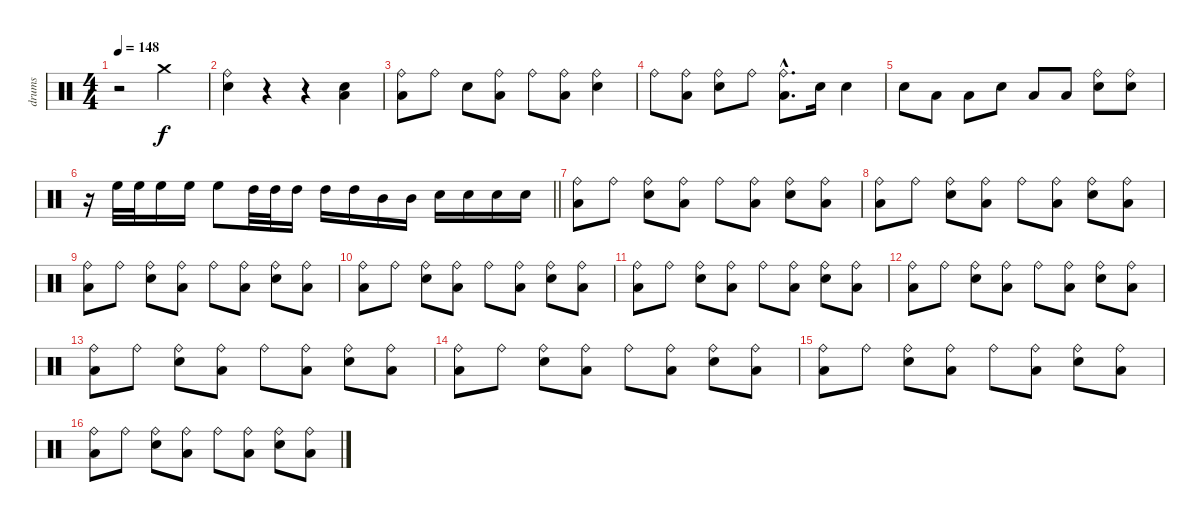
\track ("drums" "drums") {instrument percussion}
\staff {score}
\articulation defaults
\ts (4 4)
\tempo 148
\clef neutral
\ks c
r.2{dy f} "Crash medium (hit)".2 |
("Ride (bell)" "Electric Snare (hit)").4 r.4 r.4 ("Low Tom (hit)" "Snare (hit) 2").4 |
("Ride (bell)" "Low Floor Tom (hit)").8 "Ride (bell)".8 "Electric Snare (hit)".8 ("Ride (bell)" "Low Floor Tom (hit)").8 "Ride (bell)".8 ("Ride (bell)" "Low Floor Tom (hit)").8 ("Ride (bell)" "Electric Snare (hit)").4 |
"Ride (bell)".8 ("Ride (bell)" "Low Floor Tom (hit)").8 ("Ride (bell)" "Electric Snare (hit)").8 "Ride (bell)".8 ("Ride (bell)"{hac} "Low Floor Tom (hit)"{hac}).8{d} "Electric Snare (hit)".16 "Electric Snare (hit)".4 |
"Electric Snare (hit)".8 "Low Tom (hit)".8 "Low Tom (hit)".8 "Electric Snare (hit)".8 "Low Tom (hit)".8 "Low Tom (hit)".8 ("Ride (bell)" "Electric Snare (hit)").8 ("Ride (bell)" "Electric Snare (hit)").8 |
\barLineRight lightlight
r.16 "High Floor Tom (hit)".32 "High Floor Tom (hit)".32 "High Floor Tom (hit)".16 "High Floor Tom (hit)".16 "High Floor Tom (hit)".8 "High Tom (hit)".32 "High Tom (hit)".32 "High Tom (hit)".16 "High Tom (hit)".16 "High Tom (hit)".16 "Mid Tom (hit)".16 "Mid Tom (hit)".16 "Electric Snare (hit)".16 "Electric Snare (hit)".16 "Snare (hit) 2".16 "Snare (hit) 2".16 |
("Ride (bell)" "Low Floor Tom (hit)").8 "Ride (bell)".8 ("Ride (bell)" "Electric Snare (hit)").8 ("Ride (bell)" "Low Floor Tom (hit)").8 "Ride (bell)".8 ("Ride (bell)" "Low Floor Tom (hit)").8 ("Ride (bell)" "Electric Snare (hit)").8 ("Ride (bell)" "Low Floor Tom (hit)").8 |
("Ride (bell)" "Low Floor Tom (hit)").8 "Ride (bell)".8 ("Ride (bell)" "Electric Snare (hit)").8 ("Ride (bell)" "Low Floor Tom (hit)").8 "Ride (bell)".8 ("Ride (bell)" "Low Floor Tom (hit)").8 ("Ride (bell)" "Electric Snare (hit)").8 ("Ride (bell)" "Low Floor Tom (hit)").8 |
("Ride (bell)" "Low Floor Tom (hit)").8 "Ride (bell)".8 ("Ride (bell)" "Electric Snare (hit)").8 ("Ride (bell)" "Low Floor Tom (hit)").8 "Ride (bell)".8 ("Ride (bell)" "Low Floor Tom (hit)").8 ("Ride (bell)" "Electric Snare (hit)").8 ("Ride (bell)" "Low Floor Tom (hit)").8 |
("Ride (bell)" "Low Floor Tom (hit)").8 "Ride (bell)".8 ("Ride (bell)" "Electric Snare (hit)").8 ("Ride (bell)" "Low Floor Tom (hit)").8 "Ride (bell)".8 ("Ride (bell)" "Low Floor Tom (hit)").8 ("Ride (bell)" "Electric Snare (hit)").8 ("Ride (bell)" "Low Floor Tom (hit)").8 |
("Ride (bell)" "Low Floor Tom (hit)").8 "Ride (bell)".8 ("Ride (bell)" "Electric Snare (hit)").8 ("Ride (bell)" "Low Floor Tom (hit)").8 "Ride (bell)".8 ("Ride (bell)" "Low Floor Tom (hit)").8 ("Ride (bell)" "Electric Snare (hit)").8 ("Ride (bell)" "Low Floor Tom (hit)").8 |
("Ride (bell)" "Low Floor Tom (hit)").8 "Ride (bell)".8 ("Ride (bell)" "Electric Snare (hit)").8 ("Ride (bell)" "Low Floor Tom (hit)").8 "Ride (bell)".8 ("Ride (bell)" "Low Floor Tom (hit)").8 ("Ride (bell)" "Electric Snare (hit)").8 ("Ride (bell)" "Low Floor Tom (hit)").8 |
("Ride (bell)" "Low Floor Tom (hit)").8 "Ride (bell)".8 ("Ride (bell)" "Electric Snare (hit)").8 ("Ride (bell)" "Low Floor Tom (hit)").8 "Ride (bell)".8 ("Ride (bell)" "Low Floor Tom (hit)").8 ("Ride (bell)" "Electric Snare (hit)").8 ("Ride (bell)" "Low Floor Tom (hit)").8 |
("Ride (bell)" "Low Floor Tom (hit)").8 "Ride (bell)".8 ("Ride (bell)" "Electric Snare (hit)").8 ("Ride (bell)" "Low Floor Tom (hit)").8 "Ride (bell)".8 ("Ride (bell)" "Low Floor Tom (hit)").8 ("Ride (bell)" "Electric Snare (hit)").8 ("Ride (bell)" "Low Floor Tom (hit)").8 |
("Ride (bell)" "Low Floor Tom (hit)").8 "Ride (bell)".8 ("Ride (bell)" "Electric Snare (hit)").8 ("Ride (bell)" "Low Floor Tom (hit)").8 "Ride (bell)".8 ("Ride (bell)" "Low Floor Tom (hit)").8 ("Ride (bell)" "Electric Snare (hit)").8 ("Ride (bell)" "Low Floor Tom (hit)").8 |
("Ride (bell)" "Low Floor Tom (hit)").8 "Ride (bell)".8 ("Ride (bell)" "Electric Snare (hit)").8 ("Ride (bell)" "Low Floor Tom (hit)").8 "Ride (bell)".8 ("Ride (bell)" "Low Floor Tom (hit)").8 ("Ride (bell)" "Electric Snare (hit)").8 ("Ride (bell)" "Low Floor Tom (hit)").8
